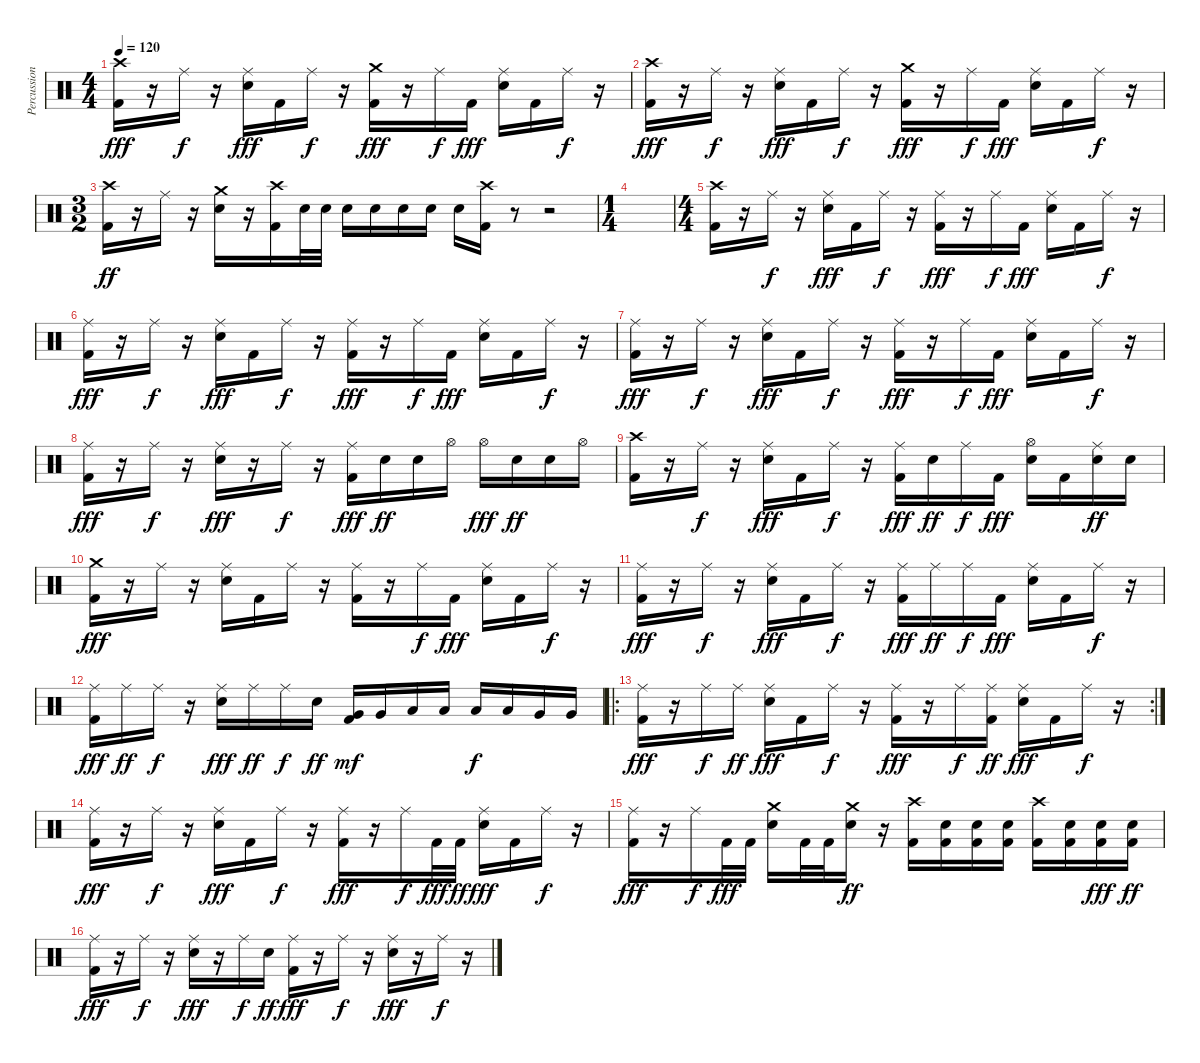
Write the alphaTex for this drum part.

\track ("Percussion" "Percussion") {instrument percussion}
\staff {score}
\articulation defaults
\ts (4 4)
\tempo 120
\clef neutral
\ks c
("Kick (hit) 2" "Crash high (hit)").16{dy fff} r.16 "Ride (middle)".16{dy f} r.16 ("Snare (hit) 2" "Ride (middle)").16{dy fff} "Kick (hit) 2".16 "Ride (middle)".16{dy f} r.16 ("Kick (hit) 2" "Crash medium (hit)").16{dy fff} r.16 "Ride (middle)".16{dy f} "Kick (hit) 2".16{dy fff} ("Snare (hit) 2" "Ride (middle)").16 "Kick (hit) 2".16 "Ride (middle)".16{dy f} r.16 |
("Kick (hit) 2" "Crash high (hit)").16{dy fff} r.16 "Ride (middle)".16{dy f} r.16 ("Snare (hit) 2" "Ride (middle)").16{dy fff} "Kick (hit) 2".16 "Ride (middle)".16{dy f} r.16 ("Kick (hit) 2" "Crash medium (hit)").16{dy fff} r.16 "Ride (middle)".16{dy f} "Kick (hit) 2".16{dy fff} ("Snare (hit) 2" "Ride (middle)").16 "Kick (hit) 2".16 "Ride (middle)".16{dy f} r.16 |
\ts (3 2)
("Kick (hit) 2" "Crash high (hit)").16{dy ff} r.16 "Ride (middle)".16 r.16 ("Snare (hit) 2" "Crash medium (hit)").16 r.16 ("Kick (hit) 2" "Crash high (hit)").16 "Snare (hit) 2".32 "Snare (hit) 2".32 "Snare (hit) 2".16 "Snare (hit) 2".16 "Snare (hit) 2".16 "Snare (hit) 2".16 "Snare (hit) 2".16 ("Kick (hit) 2" "Crash high (hit)").16 r.8 r.2 |
\ts (1 4)
|
\ts (4 4)
("Kick (hit) 2" "Crash high (hit)").16 r.16 "Ride (middle)".16{dy f} r.16 ("Snare (hit) 2" "Ride (middle)").16{dy fff} "Kick (hit) 2".16 "Ride (middle)".16{dy f} r.16 ("Kick (hit) 2" "Ride (middle)").16{dy fff} r.16 "Ride (middle)".16{dy f} "Kick (hit) 2".16{dy fff} ("Snare (hit) 2" "Ride (middle)").16 "Kick (hit) 2".16 "Ride (middle)".16{dy f} r.16 |
("Kick (hit) 2" "Ride (middle)").16{dy fff} r.16 "Ride (middle)".16{dy f} r.16 ("Snare (hit) 2" "Ride (middle)").16{dy fff} "Kick (hit) 2".16 "Ride (middle)".16{dy f} r.16 ("Kick (hit) 2" "Ride (middle)").16{dy fff} r.16 "Ride (middle)".16{dy f} "Kick (hit) 2".16{dy fff} ("Snare (hit) 2" "Ride (middle)").16 "Kick (hit) 2".16 "Ride (middle)".16{dy f} r.16 |
("Kick (hit) 2" "Ride (middle)").16{dy fff} r.16 "Ride (middle)".16{dy f} r.16 ("Snare (hit) 2" "Ride (middle)").16{dy fff} "Kick (hit) 2".16 "Ride (middle)".16{dy f} r.16 ("Kick (hit) 2" "Ride (middle)").16{dy fff} r.16 "Ride (middle)".16{dy f} "Kick (hit) 2".16{dy fff} ("Snare (hit) 2" "Ride (middle)").16 "Kick (hit) 2".16 "Ride (middle)".16{dy f} r.16 |
("Kick (hit) 2" "Ride (middle)").16{dy fff} r.16 "Ride (middle)".16{dy f} r.16 ("Snare (hit) 2" "Ride (middle)").16{dy fff} r.16 "Ride (middle)".16{dy f} r.16 ("Kick (hit) 2" "Ride (middle)").16{dy fff} "Snare (hit) 2".16{dy ff} "Snare (hit) 2".16 "Hi-Hat (open)".16 "Hi-Hat (open)".16{dy fff} "Snare (hit) 2".16{dy ff} "Snare (hit) 2".16 "Hi-Hat (open)".16 |
("Kick (hit) 2" "Crash high (hit)").16 r.16 "Ride (middle)".16{dy f} r.16 ("Snare (hit) 2" "Ride (middle)").16{dy fff} "Kick (hit) 2".16 "Ride (middle)".16{dy f} r.16 ("Kick (hit) 2" "Ride (middle)").16{dy fff} "Snare (hit) 2".16{dy ff} "Ride (middle)".16{dy f} "Kick (hit) 2".16{dy fff} ("Snare (hit) 2" "Hi-Hat (open)").16 "Kick (hit) 2".16 ("Snare (hit) 2" "Ride (middle)").16{dy ff} "Snare (hit) 2".16 |
("Kick (hit) 2" "Crash medium (hit)").16{dy fff} r.16 "Ride (middle)".16 r.16 ("Snare (hit) 2" "Ride (middle)").16 "Kick (hit) 2".16 "Ride (middle)".16 r.16 ("Kick (hit) 2" "Ride (middle)").16 r.16 "Ride (middle)".16{dy f} "Kick (hit) 2".16{dy fff} ("Snare (hit) 2" "Ride (middle)").16 "Kick (hit) 2".16 "Ride (middle)".16{dy f} r.16 |
("Kick (hit) 2" "Ride (middle)").16{dy fff} r.16 "Ride (middle)".16{dy f} r.16 ("Snare (hit) 2" "Ride (middle)").16{dy fff} "Kick (hit) 2".16 "Ride (middle)".16{dy f} r.16 ("Kick (hit) 2" "Ride (middle)").16{dy fff} "Ride (middle)".16{dy ff} "Ride (middle)".16{dy f} "Kick (hit) 2".16{dy fff} ("Snare (hit) 2" "Ride (middle)").16 "Kick (hit) 2".16 "Ride (middle)".16{dy f} r.16 |
("Kick (hit) 2" "Ride (middle)").16{dy fff} "Ride (middle)".16{dy ff} "Ride (middle)".16{dy f} r.16 ("Snare (hit) 2" "Ride (middle)").16{dy fff} "Ride (middle)".16{dy ff} "Ride (middle)".16{dy f} "Snare (hit) 2".16{dy ff} ("Kick (hit) 2" "Very Low Tom (hit)").16{dy mf} "Very Low Tom (hit)".16 "Low Tom (hit)".16 "Low Tom (hit)".16 "Low Tom (hit)".16{dy f} "Low Tom (hit)".16 "Very Low Tom (hit)".16 "Very Low Tom (hit)".16 |
\ro
\rc 2
("Kick (hit) 2" "Ride (middle)").16{dy fff} r.16 "Ride (middle)".16{dy f} "Ride (middle)".16{dy ff} ("Snare (hit) 2" "Ride (middle)").16{dy fff} "Kick (hit) 2".16 "Ride (middle)".16{dy f} r.16 ("Kick (hit) 2" "Ride (middle)").16{dy fff} r.16 "Ride (middle)".16{dy f} ("Kick (hit) 2" "Ride (middle)").16{dy ff} ("Snare (hit) 2" "Ride (middle)").16{dy fff} "Kick (hit) 2".16 "Ride (middle)".16{dy f} r.16 |
("Kick (hit) 2" "Ride (middle)").16{dy fff} r.16 "Ride (middle)".16{dy f} r.16 ("Snare (hit) 2" "Ride (middle)").16{dy fff} "Kick (hit) 2".16 "Ride (middle)".16{dy f} r.16 ("Kick (hit) 2" "Ride (middle)").16{dy fff} r.16 "Ride (middle)".16{dy f} "Kick (hit) 2".32{dy fff} "Kick (hit) 2".32{dy ff} ("Snare (hit) 2" "Ride (middle)").16{dy fff} "Kick (hit) 2".16 "Ride (middle)".16{dy f} r.16 |
("Kick (hit) 2" "Ride (middle)").16{dy fff} r.16 "Ride (middle)".16{dy f} "Kick (hit) 2".32{dy fff} "Kick (hit) 2".32 ("Snare (hit) 2" "Crash medium (hit)").16 "Kick (hit) 2".32 "Kick (hit) 2".32 ("Snare (hit) 2" "Crash medium (hit)").16{dy ff} r.16 ("Kick (hit) 2" "Crash high (hit)").16 ("Kick (hit) 2" "Snare (hit) 2").16 ("Kick (hit) 2" "Snare (hit) 2").16 ("Kick (hit) 2" "Snare (hit) 2").16 ("Kick (hit) 2" "Crash high (hit)").16 ("Kick (hit) 2" "Snare (hit) 2").16 ("Kick (hit) 2" "Snare (hit) 2").16{dy fff} ("Kick (hit) 2" "Snare (hit) 2").16{dy ff} |
("Kick (hit) 2" "Ride (middle)").16{dy fff} r.16 "Ride (middle)".16{dy f} r.16 ("Snare (hit) 2" "Ride (middle)").16{dy fff} r.16 "Ride (middle)".16{dy f} "Snare (hit) 2".16{dy ff} ("Kick (hit) 2" "Ride (middle)").16{dy fff} r.16 "Ride (middle)".16{dy f} r.16 ("Snare (hit) 2" "Ride (middle)").16{dy fff} r.16 "Ride (middle)".16{dy f} r.16
